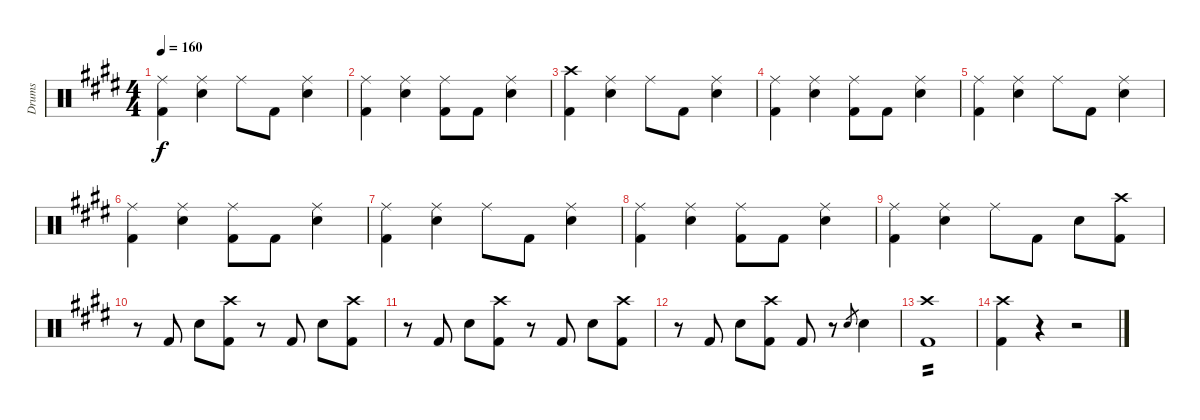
\track ("Drums" "Drums") {instrument percussion}
\staff {score}
\articulation defaults
\ts (4 4)
\tempo 160
\clef neutral
\ks e
("Ride (middle)" "Kick (hit) 2").4{dy f} ("Ride (middle)" "Electric Snare (hit)").4 "Ride (middle)".8 "Kick (hit) 2".8 ("Ride (middle)" "Electric Snare (hit)").4 |
("Ride (middle)" "Kick (hit) 2").4 ("Ride (middle)" "Electric Snare (hit)").4 ("Ride (middle)" "Kick (hit) 2").8 "Kick (hit) 2".8 ("Ride (middle)" "Electric Snare (hit)").4 |
("Crash high (hit)" "Kick (hit) 2").4 ("Ride (middle)" "Electric Snare (hit)").4 "Ride (middle)".8 "Kick (hit) 2".8 ("Ride (middle)" "Electric Snare (hit)").4 |
("Ride (middle)" "Kick (hit) 2").4 ("Ride (middle)" "Electric Snare (hit)").4 ("Ride (middle)" "Kick (hit) 2").8 "Kick (hit) 2".8 ("Ride (middle)" "Electric Snare (hit)").4 |
("Ride (middle)" "Kick (hit) 2").4 ("Ride (middle)" "Electric Snare (hit)").4 "Ride (middle)".8 "Kick (hit) 2".8 ("Ride (middle)" "Electric Snare (hit)").4 |
("Ride (middle)" "Kick (hit) 2").4 ("Ride (middle)" "Electric Snare (hit)").4 ("Ride (middle)" "Kick (hit) 2").8 "Kick (hit) 2".8 ("Ride (middle)" "Electric Snare (hit)").4 |
("Ride (middle)" "Kick (hit) 2").4 ("Ride (middle)" "Electric Snare (hit)").4 "Ride (middle)".8 "Kick (hit) 2".8 ("Ride (middle)" "Electric Snare (hit)").4 |
("Ride (middle)" "Kick (hit) 2").4 ("Ride (middle)" "Electric Snare (hit)").4 ("Ride (middle)" "Kick (hit) 2").8 "Kick (hit) 2".8 ("Ride (middle)" "Electric Snare (hit)").4 |
("Ride (middle)" "Kick (hit) 2").4 ("Ride (middle)" "Electric Snare (hit)").4 "Ride (middle)".8 "Kick (hit) 2".8 "Electric Snare (hit)".8 ("Crash high (hit)" "Kick (hit) 2").8 |
r.8 "Kick (hit) 2".8 "Electric Snare (hit)".8 ("Crash high (hit)" "Kick (hit) 2").8 r.8 "Kick (hit) 2".8 "Electric Snare (hit)".8 ("Crash high (hit)" "Kick (hit) 2").8 |
r.8 "Kick (hit) 2".8 "Electric Snare (hit)".8 ("Crash high (hit)" "Kick (hit) 2").8 r.8 "Kick (hit) 2".8 "Electric Snare (hit)".8 ("Crash high (hit)" "Kick (hit) 2").8 |
r.8 "Kick (hit) 2".8 "Electric Snare (hit)".8 ("Crash high (hit)" "Kick (hit) 2").8 "Kick (hit) 2".8 r.8 "Electric Snare (hit)".8{gr} "Electric Snare (hit)".4 |
("Crash high (hit)" "Kick (hit) 2").1{tp 2} |
("Crash high (hit)" "Kick (hit) 2").4 r.4 r.2
